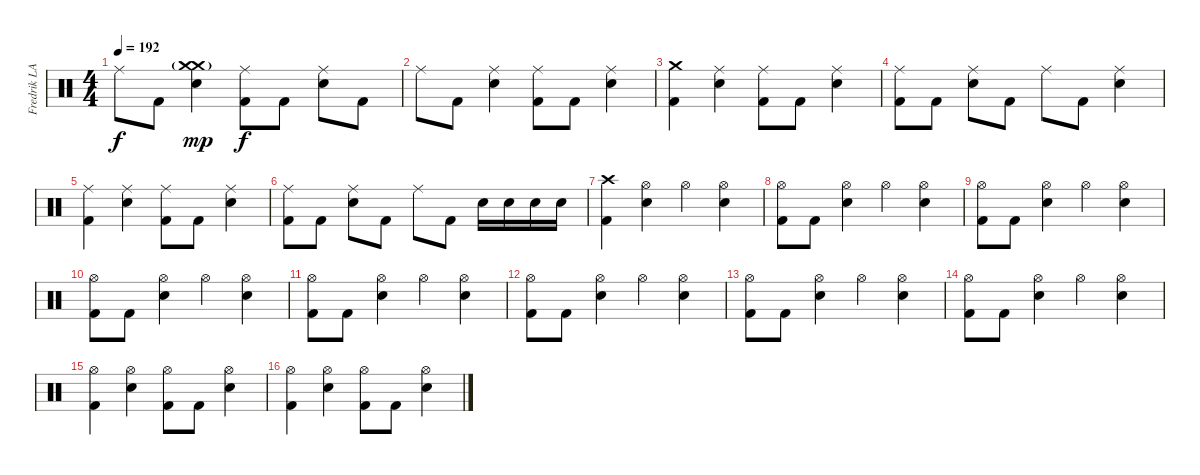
\track ("Fredrik LARZON" "Fredrik LA") {instrument percussion}
\staff {score}
\articulation defaults
\ts (4 4)
\tempo 192
\clef neutral
\ks c "Ride (middle)".8{dy f} "Kick (hit) 2".8
("Crash medium (hit)" "Electric Snare (hit)" "Crash medium (hit)"{g}).4{dy mp} ("Ride (middle)" "Kick (hit) 2").8{dy f} "Kick (hit) 2".8 ("Ride (middle)" "Electric Snare (hit)").8 "Kick (hit) 2".8 |
"Ride (middle)".8 "Kick (hit) 2".8 ("Ride (middle)" "Electric Snare (hit)").4 ("Ride (middle)" "Kick (hit) 2").8 "Kick (hit) 2".8 ("Ride (middle)" "Electric Snare (hit)").4 |
("Crash medium (hit)" "Kick (hit) 2").4 ("Ride (middle)" "Electric Snare (hit)").4 ("Ride (middle)" "Kick (hit) 2").8 "Kick (hit) 2".8 ("Ride (middle)" "Electric Snare (hit)").4 |
("Ride (middle)" "Kick (hit) 2").8 "Kick (hit) 2".8 ("Ride (middle)" "Electric Snare (hit)").8 "Kick (hit) 2".8 "Ride (middle)".8 "Kick (hit) 2".8 ("Ride (middle)" "Electric Snare (hit)").4 |
("Ride (middle)" "Kick (hit) 2").4 ("Ride (middle)" "Electric Snare (hit)").4 ("Ride (middle)" "Kick (hit) 2").8 "Kick (hit) 2".8 ("Ride (middle)" "Electric Snare (hit)").4 |
("Ride (middle)" "Kick (hit) 2").8 "Kick (hit) 2".8 ("Ride (middle)" "Electric Snare (hit)").8 "Kick (hit) 2".8 "Ride (middle)".8 "Kick (hit) 2".8 "Electric Snare (hit)".16 "Electric Snare (hit)".16 "Electric Snare (hit)".16 "Electric Snare (hit)".16 |
("Crash high (hit)" "Kick (hit) 2").4 ("Hi-Hat (open)" "Electric Snare (hit)").4 "Hi-Hat (open)".4 ("Hi-Hat (open)" "Electric Snare (hit)").4 |
("Hi-Hat (open)" "Kick (hit) 2").8 "Kick (hit) 2".8 ("Hi-Hat (open)" "Electric Snare (hit)").4 "Hi-Hat (open)".4 ("Hi-Hat (open)" "Electric Snare (hit)").4 |
("Hi-Hat (open)" "Kick (hit) 2").8 "Kick (hit) 2".8 ("Hi-Hat (open)" "Electric Snare (hit)").4 "Hi-Hat (open)".4 ("Hi-Hat (open)" "Electric Snare (hit)").4 |
("Hi-Hat (open)" "Kick (hit) 2").8 "Kick (hit) 2".8 ("Hi-Hat (open)" "Electric Snare (hit)").4 "Hi-Hat (open)".4 ("Hi-Hat (open)" "Electric Snare (hit)").4 |
("Hi-Hat (open)" "Kick (hit) 2").8 "Kick (hit) 2".8 ("Hi-Hat (open)" "Electric Snare (hit)").4 "Hi-Hat (open)".4 ("Hi-Hat (open)" "Electric Snare (hit)").4 |
("Hi-Hat (open)" "Kick (hit) 2").8 "Kick (hit) 2".8 ("Hi-Hat (open)" "Electric Snare (hit)").4 "Hi-Hat (open)".4 ("Hi-Hat (open)" "Electric Snare (hit)").4 |
("Hi-Hat (open)" "Kick (hit) 2").8 "Kick (hit) 2".8 ("Hi-Hat (open)" "Electric Snare (hit)").4 "Hi-Hat (open)".4 ("Hi-Hat (open)" "Electric Snare (hit)").4 |
("Hi-Hat (open)" "Kick (hit) 2").8 "Kick (hit) 2".8 ("Hi-Hat (open)" "Electric Snare (hit)").4 "Hi-Hat (open)".4 ("Hi-Hat (open)" "Electric Snare (hit)").4 |
("Hi-Hat (open)" "Kick (hit) 2").4 ("Hi-Hat (open)" "Electric Snare (hit)").4 ("Hi-Hat (open)" "Kick (hit) 2").8 "Kick (hit) 2".8 ("Hi-Hat (open)" "Electric Snare (hit)").4 |
("Hi-Hat (open)" "Kick (hit) 2").4 ("Hi-Hat (open)" "Electric Snare (hit)").4 ("Hi-Hat (open)" "Kick (hit) 2").8 "Kick (hit) 2".8 ("Hi-Hat (open)" "Electric Snare (hit)").4
